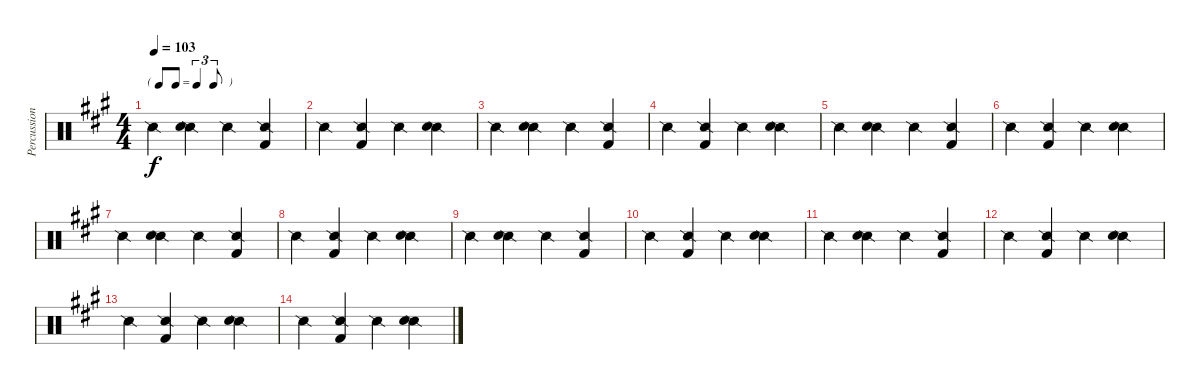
\track ("Percussions" "Percussion") {instrument percussion}
\staff {score}
\articulation defaults
\ts (4 4)
\tf triplet8th
\tempo 103
\clef neutral
\ks a "Snare (side stick) 2".4{dy f}
("Snare (side stick) 2" "Snare (hit) 2").4 "Snare (side stick) 2".4 ("Snare (side stick) 2" "Kick (hit) 2").4 |
"Snare (side stick) 2".4 ("Snare (side stick) 2" "Kick (hit) 2").4 "Snare (side stick) 2".4 ("Snare (side stick) 2" "Snare (hit) 2").4 |
"Snare (side stick) 2".4 ("Snare (side stick) 2" "Snare (hit) 2").4 "Snare (side stick) 2".4 ("Snare (side stick) 2" "Kick (hit) 2").4 |
"Snare (side stick) 2".4 ("Snare (side stick) 2" "Kick (hit) 2").4 "Snare (side stick) 2".4 ("Snare (side stick) 2" "Snare (hit) 2").4 |
"Snare (side stick) 2".4 ("Snare (side stick) 2" "Snare (hit) 2").4 "Snare (side stick) 2".4 ("Snare (side stick) 2" "Kick (hit) 2").4 |
"Snare (side stick) 2".4 ("Snare (side stick) 2" "Kick (hit) 2").4 "Snare (side stick) 2".4 ("Snare (side stick) 2" "Snare (hit) 2").4 |
"Snare (side stick) 2".4 ("Snare (side stick) 2" "Snare (hit) 2").4 "Snare (side stick) 2".4 ("Snare (side stick) 2" "Kick (hit) 2").4 |
"Snare (side stick) 2".4 ("Snare (side stick) 2" "Kick (hit) 2").4 "Snare (side stick) 2".4 ("Snare (side stick) 2" "Snare (hit) 2").4 |
"Snare (side stick) 2".4 ("Snare (side stick) 2" "Snare (hit) 2").4 "Snare (side stick) 2".4 ("Snare (side stick) 2" "Kick (hit) 2").4 |
"Snare (side stick) 2".4 ("Snare (side stick) 2" "Kick (hit) 2").4 "Snare (side stick) 2".4 ("Snare (side stick) 2" "Snare (hit) 2").4 |
"Snare (side stick) 2".4 ("Snare (side stick) 2" "Snare (hit) 2").4 "Snare (side stick) 2".4 ("Snare (side stick) 2" "Kick (hit) 2").4 |
"Snare (side stick) 2".4 ("Snare (side stick) 2" "Kick (hit) 2").4 "Snare (side stick) 2".4 ("Snare (side stick) 2" "Snare (hit) 2").4 |
"Snare (side stick) 2".4 ("Snare (side stick) 2" "Kick (hit) 2").4 "Snare (side stick) 2".4 ("Snare (side stick) 2" "Snare (hit) 2").4 |
"Snare (side stick) 2".4 ("Snare (side stick) 2" "Kick (hit) 2").4 "Snare (side stick) 2".4 ("Snare (side stick) 2" "Snare (hit) 2").4
